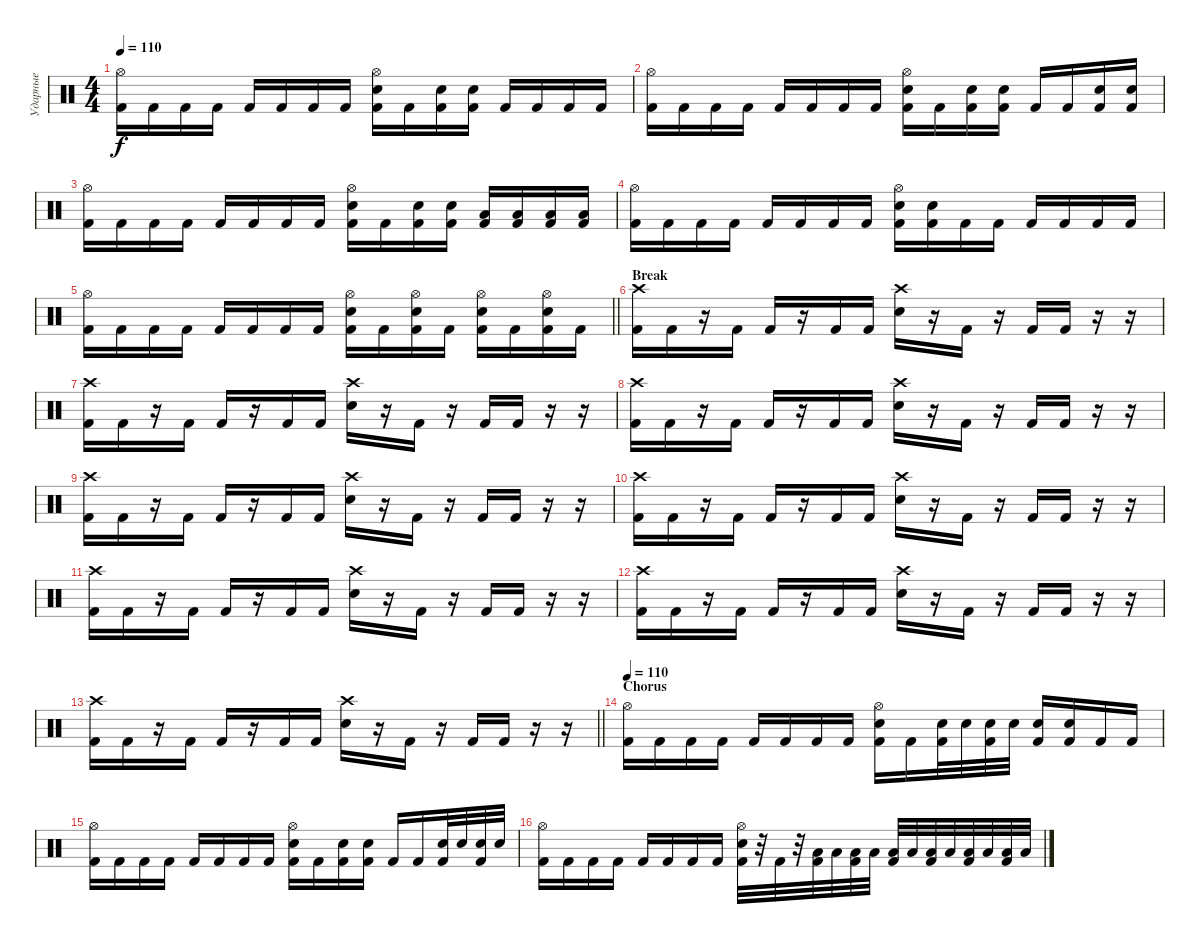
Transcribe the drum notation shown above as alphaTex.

\track ("Ударные" "Ударные") {instrument percussion}
\staff {score}
\articulation defaults
\ts (4 4)
\tempo 110
\clef neutral
\ks c
("Hi-Hat (open)" "Kick (hit) 2").16{dy f} "Kick (hit) 2".16 "Kick (hit) 2".16 "Kick (hit) 2".16 "Kick (hit) 2".16 "Kick (hit) 2".16 "Kick (hit) 2".16 "Kick (hit) 2".16 ("Hi-Hat (open)" "Electric Snare (hit)" "Kick (hit) 2").16 "Kick (hit) 2".16 ("Electric Snare (hit)" "Kick (hit) 2").16 ("Electric Snare (hit)" "Kick (hit) 2").16 "Kick (hit) 2".16 "Kick (hit) 2".16 "Kick (hit) 2".16 "Kick (hit) 2".16 |
("Hi-Hat (open)" "Kick (hit) 2").16 "Kick (hit) 2".16 "Kick (hit) 2".16 "Kick (hit) 2".16 "Kick (hit) 2".16 "Kick (hit) 2".16 "Kick (hit) 2".16 "Kick (hit) 2".16 ("Hi-Hat (open)" "Electric Snare (hit)" "Kick (hit) 2").16 "Kick (hit) 2".16 ("Electric Snare (hit)" "Kick (hit) 2").16 ("Electric Snare (hit)" "Kick (hit) 2").16 "Kick (hit) 2".16 "Kick (hit) 2".16 ("Electric Snare (hit)" "Kick (hit) 2").16 ("Electric Snare (hit)" "Kick (hit) 2").16 |
("Hi-Hat (open)" "Kick (hit) 2").16 "Kick (hit) 2".16 "Kick (hit) 2".16 "Kick (hit) 2".16 "Kick (hit) 2".16 "Kick (hit) 2".16 "Kick (hit) 2".16 "Kick (hit) 2".16 ("Hi-Hat (open)" "Electric Snare (hit)" "Kick (hit) 2").16 "Kick (hit) 2".16 ("Electric Snare (hit)" "Kick (hit) 2").16 ("Electric Snare (hit)" "Kick (hit) 2").16 ("Low Tom (hit)" "Kick (hit) 2").16 ("Low Tom (hit)" "Kick (hit) 2").16 ("Low Floor Tom (hit)" "Kick (hit) 2").16 ("Low Floor Tom (hit)" "Kick (hit) 2").16 |
("Hi-Hat (open)" "Kick (hit) 2").16 "Kick (hit) 2".16 "Kick (hit) 2".16 "Kick (hit) 2".16 "Kick (hit) 2".16 "Kick (hit) 2".16 "Kick (hit) 2".16 "Kick (hit) 2".16 ("Hi-Hat (open)" "Electric Snare (hit)" "Kick (hit) 2").16 ("Electric Snare (hit)" "Kick (hit) 2").16 "Kick (hit) 2".16 "Kick (hit) 2".16 "Kick (hit) 2".16 "Kick (hit) 2".16 "Kick (hit) 2".16 "Kick (hit) 2".16 |
\barLineRight lightlight
("Hi-Hat (open)" "Kick (hit) 2").16 "Kick (hit) 2".16 "Kick (hit) 2".16 "Kick (hit) 2".16 "Kick (hit) 2".16 "Kick (hit) 2".16 "Kick (hit) 2".16 "Kick (hit) 2".16 ("Hi-Hat (open)" "Electric Snare (hit)" "Kick (hit) 2").16 "Kick (hit) 2".16 ("Hi-Hat (open)" "Electric Snare (hit)" "Kick (hit) 2").16 "Kick (hit) 2".16 ("Hi-Hat (open)" "Electric Snare (hit)" "Kick (hit) 2").16 "Kick (hit) 2".16 ("Hi-Hat (open)" "Electric Snare (hit)" "Kick (hit) 2").16 "Kick (hit) 2".16 |
\section ("" "Break")
("Crash high (hit)" "Kick (hit) 2").16 "Kick (hit) 2".16 r.16 "Kick (hit) 2".16 "Kick (hit) 2".16 r.16 "Kick (hit) 2".16 "Kick (hit) 2".16 ("Crash high (hit)" "Electric Snare (hit)").16 r.16 "Kick (hit) 2".16 r.16 "Kick (hit) 2".16 "Kick (hit) 2".16 r.16 r.16 |
("Crash high (hit)" "Kick (hit) 2").16 "Kick (hit) 2".16 r.16 "Kick (hit) 2".16 "Kick (hit) 2".16 r.16 "Kick (hit) 2".16 "Kick (hit) 2".16 ("Crash high (hit)" "Electric Snare (hit)").16 r.16 "Kick (hit) 2".16 r.16 "Kick (hit) 2".16 "Kick (hit) 2".16 r.16 r.16 |
("Crash high (hit)" "Kick (hit) 2").16 "Kick (hit) 2".16 r.16 "Kick (hit) 2".16 "Kick (hit) 2".16 r.16 "Kick (hit) 2".16 "Kick (hit) 2".16 ("Crash high (hit)" "Electric Snare (hit)").16 r.16 "Kick (hit) 2".16 r.16 "Kick (hit) 2".16 "Kick (hit) 2".16 r.16 r.16 |
("Crash high (hit)" "Kick (hit) 2").16 "Kick (hit) 2".16 r.16 "Kick (hit) 2".16 "Kick (hit) 2".16 r.16 "Kick (hit) 2".16 "Kick (hit) 2".16 ("Crash high (hit)" "Electric Snare (hit)").16 r.16 "Kick (hit) 2".16 r.16 "Kick (hit) 2".16 "Kick (hit) 2".16 r.16 r.16 |
("Crash high (hit)" "Kick (hit) 2").16 "Kick (hit) 2".16 r.16 "Kick (hit) 2".16 "Kick (hit) 2".16 r.16 "Kick (hit) 2".16 "Kick (hit) 2".16 ("Crash high (hit)" "Electric Snare (hit)").16 r.16 "Kick (hit) 2".16 r.16 "Kick (hit) 2".16 "Kick (hit) 2".16 r.16 r.16 |
("Crash high (hit)" "Kick (hit) 2").16 "Kick (hit) 2".16 r.16 "Kick (hit) 2".16 "Kick (hit) 2".16 r.16 "Kick (hit) 2".16 "Kick (hit) 2".16 ("Crash high (hit)" "Electric Snare (hit)").16 r.16 "Kick (hit) 2".16 r.16 "Kick (hit) 2".16 "Kick (hit) 2".16 r.16 r.16 |
("Crash high (hit)" "Kick (hit) 2").16 "Kick (hit) 2".16 r.16 "Kick (hit) 2".16 "Kick (hit) 2".16 r.16 "Kick (hit) 2".16 "Kick (hit) 2".16 ("Crash high (hit)" "Electric Snare (hit)").16 r.16 "Kick (hit) 2".16 r.16 "Kick (hit) 2".16 "Kick (hit) 2".16 r.16 r.16 |
\barLineRight lightlight
("Crash high (hit)" "Kick (hit) 2").16 "Kick (hit) 2".16 r.16 "Kick (hit) 2".16 "Kick (hit) 2".16 r.16 "Kick (hit) 2".16 "Kick (hit) 2".16 ("Crash high (hit)" "Electric Snare (hit)").16 r.16 "Kick (hit) 2".16 r.16 "Kick (hit) 2".16 "Kick (hit) 2".16 r.16 r.16 |
\section ("" "Chorus")
\tempo 110
("Hi-Hat (open)" "Kick (hit) 2").16 "Kick (hit) 2".16 "Kick (hit) 2".16 "Kick (hit) 2".16 "Kick (hit) 2".16 "Kick (hit) 2".16 "Kick (hit) 2".16 "Kick (hit) 2".16 ("Hi-Hat (open)" "Electric Snare (hit)" "Kick (hit) 2").16 "Kick (hit) 2".16 ("Electric Snare (hit)" "Kick (hit) 2").32 "Electric Snare (hit)".32 ("Electric Snare (hit)" "Kick (hit) 2").32 "Electric Snare (hit)".32 ("Electric Snare (hit)" "Kick (hit) 2").16 ("Electric Snare (hit)" "Kick (hit) 2").16 "Kick (hit) 2".16 "Kick (hit) 2".16 |
("Hi-Hat (open)" "Kick (hit) 2").16 "Kick (hit) 2".16 "Kick (hit) 2".16 "Kick (hit) 2".16 "Kick (hit) 2".16 "Kick (hit) 2".16 "Kick (hit) 2".16 "Kick (hit) 2".16 ("Hi-Hat (open)" "Electric Snare (hit)" "Kick (hit) 2").16 "Kick (hit) 2".16 ("Electric Snare (hit)" "Kick (hit) 2").16 ("Electric Snare (hit)" "Kick (hit) 2").16 "Kick (hit) 2".16 "Kick (hit) 2".16 ("Electric Snare (hit)" "Kick (hit) 2").32 "Electric Snare (hit)".32 ("Electric Snare (hit)" "Kick (hit) 2").32 "Electric Snare (hit)".32 |
("Hi-Hat (open)" "Kick (hit) 2").16 "Kick (hit) 2".16 "Kick (hit) 2".16 "Kick (hit) 2".16 "Kick (hit) 2".16 "Kick (hit) 2".16 "Kick (hit) 2".16 "Kick (hit) 2".16 ("Hi-Hat (open)" "Electric Snare (hit)" "Kick (hit) 2").32 r.32 "Kick (hit) 2".32 r.32 ("Low Tom (hit)" "Kick (hit) 2").32 "Low Tom (hit)".32 ("Low Tom (hit)" "Kick (hit) 2").32 "Low Tom (hit)".32 ("Low Floor Tom (hit)" "Kick (hit) 2").32 "Low Floor Tom (hit)".32 ("Low Floor Tom (hit)" "Kick (hit) 2").32 "Low Floor Tom (hit)".32 ("Low Floor Tom (hit)" "Kick (hit) 2").32 "Low Floor Tom (hit)".32 ("Low Floor Tom (hit)" "Kick (hit) 2").32 "Low Floor Tom (hit)".32
